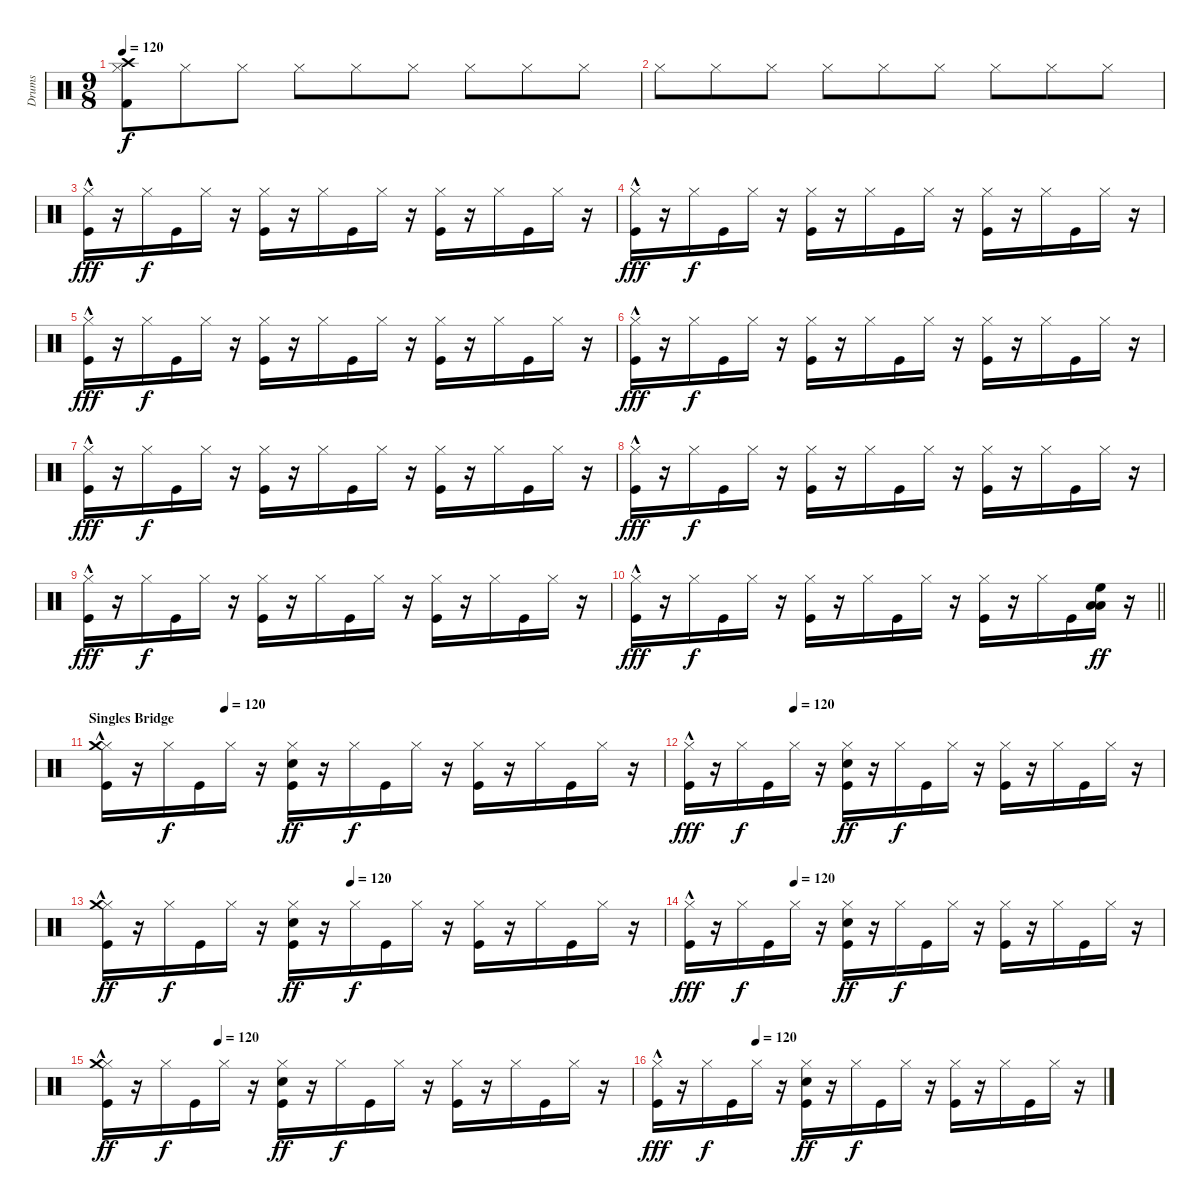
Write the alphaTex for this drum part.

\track ("Drums" "Drums") {instrument percussion}
\staff {score}
\articulation defaults
\ts (9 8)
\tempo 120
\clef neutral
\ks c
("Kick (hit) 2" "Crash high (hit)" "Hi-Hat (closed)").8{dy f} "Hi-Hat (closed)".8 "Hi-Hat (closed)".8 "Hi-Hat (closed)".8 "Hi-Hat (closed)".8 "Hi-Hat (closed)".8 "Hi-Hat (closed)".8 "Hi-Hat (closed)".8 "Hi-Hat (closed)".8 |
"Hi-Hat (closed)".8 "Hi-Hat (closed)".8 "Hi-Hat (closed)".8 "Hi-Hat (closed)".8 "Hi-Hat (closed)".8 "Hi-Hat (closed)".8 "Hi-Hat (closed)".8 "Hi-Hat (closed)".8 "Hi-Hat (closed)".8 |
("Hi-Hat (closed)"{hac} "Kick (hit)").16{dy fff} r.16 "Hi-Hat (closed)".16{dy f} "Kick (hit)".16 "Hi-Hat (closed)".16 r.16 ("Hi-Hat (closed)" "Kick (hit)").16 r.16 "Hi-Hat (closed)".16 "Kick (hit)".16 "Hi-Hat (closed)".16 r.16 ("Hi-Hat (closed)" "Kick (hit)").16 r.16 "Hi-Hat (closed)".16 "Kick (hit)".16 "Hi-Hat (closed)".16 r.16 |
("Hi-Hat (closed)"{hac} "Kick (hit)").16{dy fff} r.16 "Hi-Hat (closed)".16{dy f} "Kick (hit)".16 "Hi-Hat (closed)".16 r.16 ("Hi-Hat (closed)" "Kick (hit)").16 r.16 "Hi-Hat (closed)".16 "Kick (hit)".16 "Hi-Hat (closed)".16 r.16 ("Hi-Hat (closed)" "Kick (hit)").16 r.16 "Hi-Hat (closed)".16 "Kick (hit)".16 "Hi-Hat (closed)".16 r.16 |
("Hi-Hat (closed)"{hac} "Kick (hit)").16{dy fff} r.16 "Hi-Hat (closed)".16{dy f} "Kick (hit)".16 "Hi-Hat (closed)".16 r.16 ("Hi-Hat (closed)" "Kick (hit)").16 r.16 "Hi-Hat (closed)".16 "Kick (hit)".16 "Hi-Hat (closed)".16 r.16 ("Hi-Hat (closed)" "Kick (hit)").16 r.16 "Hi-Hat (closed)".16 "Kick (hit)".16 "Hi-Hat (closed)".16 r.16 |
("Hi-Hat (closed)"{hac} "Kick (hit)").16{dy fff} r.16 "Hi-Hat (closed)".16{dy f} "Kick (hit)".16 "Hi-Hat (closed)".16 r.16 ("Hi-Hat (closed)" "Kick (hit)").16 r.16 "Hi-Hat (closed)".16 "Kick (hit)".16 "Hi-Hat (closed)".16 r.16 ("Hi-Hat (closed)" "Kick (hit)").16 r.16 "Hi-Hat (closed)".16 "Kick (hit)".16 "Hi-Hat (closed)".16 r.16 |
("Hi-Hat (closed)"{hac} "Kick (hit)").16{dy fff} r.16 "Hi-Hat (closed)".16{dy f} "Kick (hit)".16 "Hi-Hat (closed)".16 r.16 ("Hi-Hat (closed)" "Kick (hit)").16 r.16 "Hi-Hat (closed)".16 "Kick (hit)".16 "Hi-Hat (closed)".16 r.16 ("Hi-Hat (closed)" "Kick (hit)").16 r.16 "Hi-Hat (closed)".16 "Kick (hit)".16 "Hi-Hat (closed)".16 r.16 |
("Hi-Hat (closed)"{hac} "Kick (hit)").16{dy fff} r.16 "Hi-Hat (closed)".16{dy f} "Kick (hit)".16 "Hi-Hat (closed)".16 r.16 ("Hi-Hat (closed)" "Kick (hit)").16 r.16 "Hi-Hat (closed)".16 "Kick (hit)".16 "Hi-Hat (closed)".16 r.16 ("Hi-Hat (closed)" "Kick (hit)").16 r.16 "Hi-Hat (closed)".16 "Kick (hit)".16 "Hi-Hat (closed)".16 r.16 |
("Hi-Hat (closed)"{hac} "Kick (hit)").16{dy fff} r.16 "Hi-Hat (closed)".16{dy f} "Kick (hit)".16 "Hi-Hat (closed)".16 r.16 ("Hi-Hat (closed)" "Kick (hit)").16 r.16 "Hi-Hat (closed)".16 "Kick (hit)".16 "Hi-Hat (closed)".16 r.16 ("Hi-Hat (closed)" "Kick (hit)").16 r.16 "Hi-Hat (closed)".16 "Kick (hit)".16 "Hi-Hat (closed)".16 r.16 |
\barLineRight lightlight
("Hi-Hat (closed)"{hac} "Kick (hit)").16{dy fff} r.16 "Hi-Hat (closed)".16{dy f} "Kick (hit)".16 "Hi-Hat (closed)".16 r.16 ("Hi-Hat (closed)" "Kick (hit)").16 r.16 "Hi-Hat (closed)".16 "Kick (hit)".16 "Hi-Hat (closed)".16 r.16 ("Hi-Hat (closed)" "Kick (hit)").16 r.16 "Hi-Hat (closed)".16 "Kick (hit)".16 ("High Floor Tom (hit)" "Low Tom (hit)" "Low Floor Tom (hit)").16{dy ff} r.16 |
\section ("" "Singles Bridge")
\tempo (120 0.2222222222222222)
("Hi-Hat (closed)"{hac} "Crash medium (hit)" "Kick (hit)").16 r.16 "Hi-Hat (closed)".16{dy f} "Kick (hit)".16 "Hi-Hat (closed)".16 r.16 ("Hi-Hat (closed)" "Electric Snare (hit)" "Kick (hit)").16{dy ff} r.16 "Hi-Hat (closed)".16{dy f} "Kick (hit)".16 "Hi-Hat (closed)".16 r.16 ("Hi-Hat (closed)" "Kick (hit)").16 r.16 "Hi-Hat (closed)".16 "Kick (hit)".16 "Hi-Hat (closed)".16 r.16 |
\tempo (120 0.2222222222222222)
("Hi-Hat (closed)"{hac} "Kick (hit)").16{dy fff} r.16 "Hi-Hat (closed)".16{dy f} "Kick (hit)".16 "Hi-Hat (closed)".16 r.16 ("Hi-Hat (closed)" "Electric Snare (hit)" "Kick (hit)").16{dy ff} r.16 "Hi-Hat (closed)".16{dy f} "Kick (hit)".16 "Hi-Hat (closed)".16 r.16 ("Hi-Hat (closed)" "Kick (hit)").16 r.16 "Hi-Hat (closed)".16 "Kick (hit)".16 "Hi-Hat (closed)".16 r.16 |
\tempo (120 0.4444444444444444)
("Hi-Hat (closed)"{hac} "Crash medium (hit)" "Kick (hit)").16{dy ff} r.16 "Hi-Hat (closed)".16{dy f} "Kick (hit)".16 "Hi-Hat (closed)".16 r.16 ("Hi-Hat (closed)" "Electric Snare (hit)" "Kick (hit)").16{dy ff} r.16 "Hi-Hat (closed)".16{dy f} "Kick (hit)".16 "Hi-Hat (closed)".16 r.16 ("Hi-Hat (closed)" "Kick (hit)").16 r.16 "Hi-Hat (closed)".16 "Kick (hit)".16 "Hi-Hat (closed)".16 r.16 |
\tempo (120 0.2222222222222222)
("Hi-Hat (closed)"{hac} "Kick (hit)").16{dy fff} r.16 "Hi-Hat (closed)".16{dy f} "Kick (hit)".16 "Hi-Hat (closed)".16 r.16 ("Hi-Hat (closed)" "Electric Snare (hit)" "Kick (hit)").16{dy ff} r.16 "Hi-Hat (closed)".16{dy f} "Kick (hit)".16 "Hi-Hat (closed)".16 r.16 ("Hi-Hat (closed)" "Kick (hit)").16 r.16 "Hi-Hat (closed)".16 "Kick (hit)".16 "Hi-Hat (closed)".16 r.16 |
\tempo (120 0.2222222222222222)
("Hi-Hat (closed)"{hac} "Crash medium (hit)" "Kick (hit)").16{dy ff} r.16 "Hi-Hat (closed)".16{dy f} "Kick (hit)".16 "Hi-Hat (closed)".16 r.16 ("Hi-Hat (closed)" "Electric Snare (hit)" "Kick (hit)").16{dy ff} r.16 "Hi-Hat (closed)".16{dy f} "Kick (hit)".16 "Hi-Hat (closed)".16 r.16 ("Hi-Hat (closed)" "Kick (hit)").16 r.16 "Hi-Hat (closed)".16 "Kick (hit)".16 "Hi-Hat (closed)".16 r.16 |
\tempo (120 0.2222222222222222)
("Hi-Hat (closed)"{hac} "Kick (hit)").16{dy fff} r.16 "Hi-Hat (closed)".16{dy f} "Kick (hit)".16 "Hi-Hat (closed)".16 r.16 ("Hi-Hat (closed)" "Electric Snare (hit)" "Kick (hit)").16{dy ff} r.16 "Hi-Hat (closed)".16{dy f} "Kick (hit)".16 "Hi-Hat (closed)".16 r.16 ("Hi-Hat (closed)" "Kick (hit)").16 r.16 "Hi-Hat (closed)".16 "Kick (hit)".16 "Hi-Hat (closed)".16 r.16
